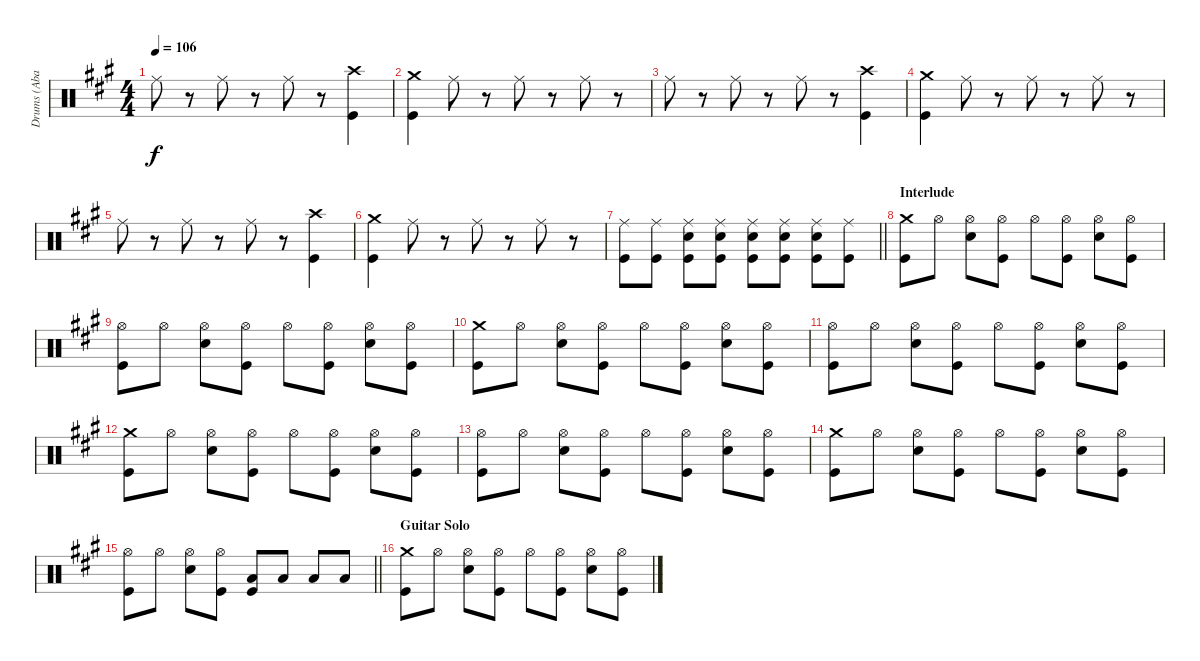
\track ("Drums (Abaddon)" "Drums (Aba") {instrument percussion}
\staff {score}
\articulation defaults
\ts (4 4)
\tempo 106
\clef neutral
\ks f#minor "Ride (middle)".8{dy f}
r.8 "Ride (middle)".8 r.8 "Ride (middle)".8 r.8 ("Crash high (hit)" "Kick (hit)").4 |
("Crash medium (hit)" "Kick (hit)").4 "Ride (middle)".8 r.8 "Ride (middle)".8 r.8 "Ride (middle)".8 r.8 |
"Ride (middle)".8 r.8 "Ride (middle)".8 r.8 "Ride (middle)".8 r.8 ("Crash high (hit)" "Kick (hit)").4 |
("Crash medium (hit)" "Kick (hit)").4 "Ride (middle)".8 r.8 "Ride (middle)".8 r.8 "Ride (middle)".8 r.8 |
"Ride (middle)".8 r.8 "Ride (middle)".8 r.8 "Ride (middle)".8 r.8 ("Crash high (hit)" "Kick (hit)").4 |
("Crash medium (hit)" "Kick (hit)").4 "Ride (middle)".8 r.8 "Ride (middle)".8 r.8 "Ride (middle)".8 r.8 |
\barLineRight lightlight
("Ride (middle)" "Kick (hit)").8 ("Ride (middle)" "Kick (hit)").8 ("Ride (middle)" "Electric Snare (hit)" "Kick (hit)").8 ("Ride (middle)" "Electric Snare (hit)" "Kick (hit)").8 ("Ride (middle)" "Electric Snare (hit)" "Kick (hit)").8 ("Ride (middle)" "Electric Snare (hit)" "Kick (hit)").8 ("Ride (middle)" "Electric Snare (hit)" "Kick (hit)").8 ("Ride (middle)" "Kick (hit)").8 |
\section ("" "Interlude")
("Crash medium (hit)" "Kick (hit)").8 "Hi-Hat (open)".8 ("Hi-Hat (open)" "Electric Snare (hit)").8 ("Hi-Hat (open)" "Kick (hit)").8 "Hi-Hat (open)".8 ("Hi-Hat (open)" "Kick (hit)").8 ("Hi-Hat (open)" "Electric Snare (hit)").8 ("Hi-Hat (open)" "Kick (hit)").8 |
("Hi-Hat (open)" "Kick (hit)").8 "Hi-Hat (open)".8 ("Hi-Hat (open)" "Electric Snare (hit)").8 ("Hi-Hat (open)" "Kick (hit)").8 "Hi-Hat (open)".8 ("Hi-Hat (open)" "Kick (hit)").8 ("Hi-Hat (open)" "Electric Snare (hit)").8 ("Hi-Hat (open)" "Kick (hit)").8 |
("Crash medium (hit)" "Kick (hit)").8 "Hi-Hat (open)".8 ("Hi-Hat (open)" "Electric Snare (hit)").8 ("Hi-Hat (open)" "Kick (hit)").8 "Hi-Hat (open)".8 ("Hi-Hat (open)" "Kick (hit)").8 ("Hi-Hat (open)" "Electric Snare (hit)").8 ("Hi-Hat (open)" "Kick (hit)").8 |
("Hi-Hat (open)" "Kick (hit)").8 "Hi-Hat (open)".8 ("Hi-Hat (open)" "Electric Snare (hit)").8 ("Hi-Hat (open)" "Kick (hit)").8 "Hi-Hat (open)".8 ("Hi-Hat (open)" "Kick (hit)").8 ("Hi-Hat (open)" "Electric Snare (hit)").8 ("Hi-Hat (open)" "Kick (hit)").8 |
("Crash medium (hit)" "Kick (hit)").8 "Hi-Hat (open)".8 ("Hi-Hat (open)" "Electric Snare (hit)").8 ("Hi-Hat (open)" "Kick (hit)").8 "Hi-Hat (open)".8 ("Hi-Hat (open)" "Kick (hit)").8 ("Hi-Hat (open)" "Electric Snare (hit)").8 ("Hi-Hat (open)" "Kick (hit)").8 |
("Hi-Hat (open)" "Kick (hit)").8 "Hi-Hat (open)".8 ("Hi-Hat (open)" "Electric Snare (hit)").8 ("Hi-Hat (open)" "Kick (hit)").8 "Hi-Hat (open)".8 ("Hi-Hat (open)" "Kick (hit)").8 ("Hi-Hat (open)" "Electric Snare (hit)").8 ("Hi-Hat (open)" "Kick (hit)").8 |
("Crash medium (hit)" "Kick (hit)").8 "Hi-Hat (open)".8 ("Hi-Hat (open)" "Electric Snare (hit)").8 ("Hi-Hat (open)" "Kick (hit)").8 "Hi-Hat (open)".8 ("Hi-Hat (open)" "Kick (hit)").8 ("Hi-Hat (open)" "Electric Snare (hit)").8 ("Hi-Hat (open)" "Kick (hit)").8 |
\barLineRight lightlight
("Hi-Hat (open)" "Kick (hit)").8 "Hi-Hat (open)".8 ("Hi-Hat (open)" "Electric Snare (hit)").8 ("Hi-Hat (open)" "Kick (hit)").8 ("Low Floor Tom (hit)" "Kick (hit)").8 "Low Floor Tom (hit)".8 "Low Tom (hit)".8 "Low Tom (hit)".8 |
\section ("" "Guitar Solo")
("Crash medium (hit)" "Kick (hit)").8 "Hi-Hat (open)".8 ("Hi-Hat (open)" "Electric Snare (hit)").8 ("Hi-Hat (open)" "Kick (hit)").8 "Hi-Hat (open)".8 ("Hi-Hat (open)" "Kick (hit)").8 ("Hi-Hat (open)" "Electric Snare (hit)").8 ("Hi-Hat (open)" "Kick (hit)").8
